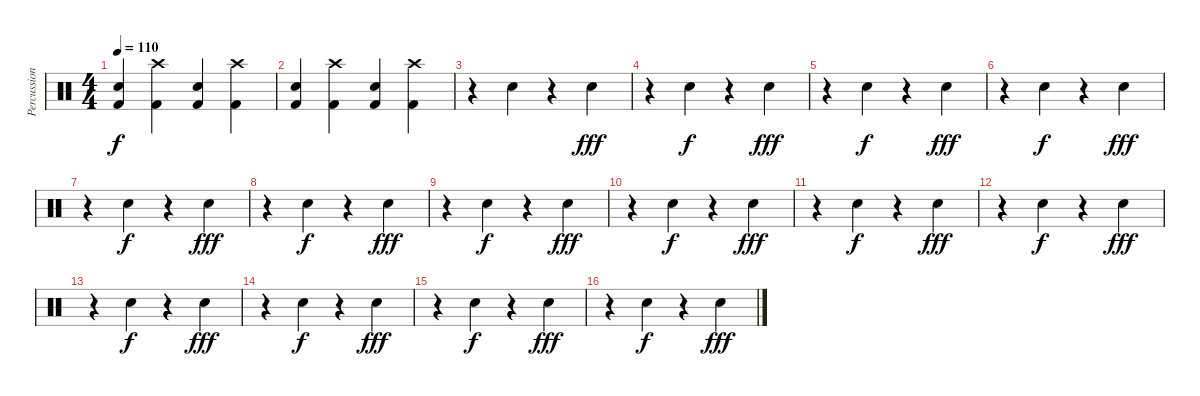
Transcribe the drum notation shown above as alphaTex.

\track ("Percussion" "Percussion") {instrument percussion}
\staff {score}
\articulation defaults
\ts (4 4)
\tempo 110
\clef neutral
\ks c
("Snare (hit) 2" "Kick (hit) 2").4{dy f} ("Crash high (hit)" "Kick (hit) 2").4 ("Snare (hit) 2" "Kick (hit) 2").4 ("Crash high (hit)" "Kick (hit) 2").4 |
("Snare (hit) 2" "Kick (hit) 2").4 ("Crash high (hit)" "Kick (hit) 2").4 ("Snare (hit) 2" "Kick (hit) 2").4 ("Crash high (hit)" "Kick (hit) 2").4 |
r.4 "Snare (hit) 2".4 r.4 "Snare (hit) 2".4{dy fff} |
r.4 "Snare (hit) 2".4{dy f} r.4 "Snare (hit) 2".4{dy fff} |
r.4 "Snare (hit) 2".4{dy f} r.4 "Snare (hit) 2".4{dy fff} |
r.4 "Snare (hit) 2".4{dy f} r.4 "Snare (hit) 2".4{dy fff} |
r.4 "Snare (hit) 2".4{dy f} r.4 "Snare (hit) 2".4{dy fff} |
r.4 "Snare (hit) 2".4{dy f} r.4 "Snare (hit) 2".4{dy fff} |
r.4 "Snare (hit) 2".4{dy f} r.4 "Snare (hit) 2".4{dy fff} |
r.4 "Snare (hit) 2".4{dy f} r.4 "Snare (hit) 2".4{dy fff} |
r.4 "Snare (hit) 2".4{dy f} r.4 "Snare (hit) 2".4{dy fff} |
r.4 "Snare (hit) 2".4{dy f} r.4 "Snare (hit) 2".4{dy fff} |
r.4 "Snare (hit) 2".4{dy f} r.4 "Snare (hit) 2".4{dy fff} |
r.4 "Snare (hit) 2".4{dy f} r.4 "Snare (hit) 2".4{dy fff} |
r.4 "Snare (hit) 2".4{dy f} r.4 "Snare (hit) 2".4{dy fff} |
r.4 "Snare (hit) 2".4{dy f} r.4 "Snare (hit) 2".4{dy fff}
